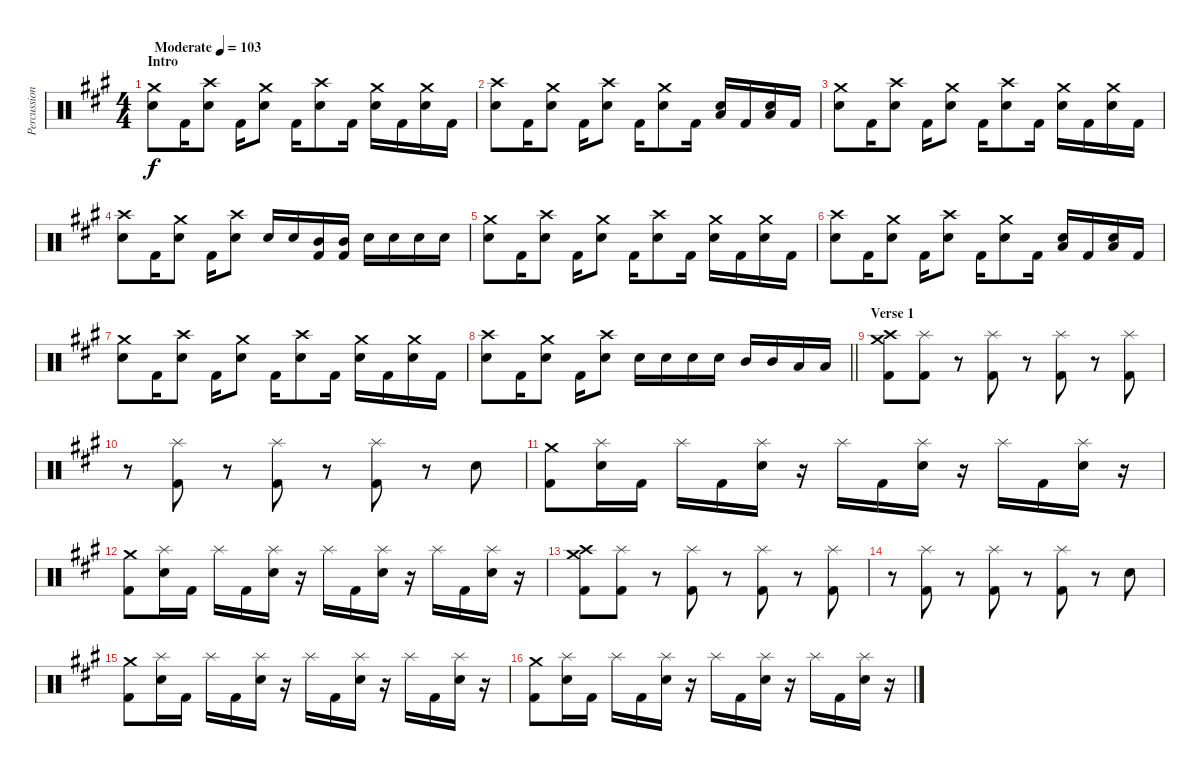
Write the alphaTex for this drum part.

\track ("Percussion" "Percussion") {instrument percussion}
\staff {score}
\articulation defaults
\ts (4 4)
\section ("" "Intro")
\tempo (103 "Moderate")
\clef neutral
\ks f#minor
("Crash medium (hit)" "Electric Snare (hit)").8{dy f} "Kick (hit) 2".16 ("Crash high (hit)" "Electric Snare (hit)").8 "Kick (hit) 2".16 ("Crash medium (hit)" "Electric Snare (hit)").8 "Kick (hit) 2".16 ("Crash high (hit)" "Electric Snare (hit)").8 "Kick (hit) 2".16 ("Crash medium (hit)" "Electric Snare (hit)").16 "Kick (hit) 2".16 ("Crash medium (hit)" "Electric Snare (hit)").16 "Kick (hit) 2".16 |
("Crash high (hit)" "Electric Snare (hit)").8 "Kick (hit) 2".16 ("Crash medium (hit)" "Electric Snare (hit)").8 "Kick (hit) 2".16 ("Crash high (hit)" "Electric Snare (hit)").8 "Kick (hit) 2".16 ("Crash medium (hit)" "Electric Snare (hit)").8 "Kick (hit) 2".16 ("Low Tom (hit)" "Electric Snare (hit)").16 "Kick (hit) 2".16 ("Low Tom (hit)" "Electric Snare (hit)").16 "Kick (hit) 2".16 |
("Crash medium (hit)" "Electric Snare (hit)").8 "Kick (hit) 2".16 ("Crash high (hit)" "Electric Snare (hit)").8 "Kick (hit) 2".16 ("Crash medium (hit)" "Electric Snare (hit)").8 "Kick (hit) 2".16 ("Crash high (hit)" "Electric Snare (hit)").8 "Kick (hit) 2".16 ("Crash medium (hit)" "Electric Snare (hit)").16 "Kick (hit) 2".16 ("Crash medium (hit)" "Electric Snare (hit)").16 "Kick (hit) 2".16 |
("Crash high (hit)" "Electric Snare (hit)").8 "Kick (hit) 2".16 ("Crash medium (hit)" "Electric Snare (hit)").8 "Kick (hit) 2".16 ("Crash high (hit)" "Electric Snare (hit)").8 "Electric Snare (hit)".16 "Electric Snare (hit)".16 ("Mid Tom (hit)" "Kick (hit) 2").16 ("Mid Tom (hit)" "Kick (hit) 2").16 "Electric Snare (hit)".16 "Electric Snare (hit)".16 "Electric Snare (hit)".16 "Electric Snare (hit)".16 |
("Crash medium (hit)" "Electric Snare (hit)").8 "Kick (hit) 2".16 ("Crash high (hit)" "Electric Snare (hit)").8 "Kick (hit) 2".16 ("Crash medium (hit)" "Electric Snare (hit)").8 "Kick (hit) 2".16 ("Crash high (hit)" "Electric Snare (hit)").8 "Kick (hit) 2".16 ("Crash medium (hit)" "Electric Snare (hit)").16 "Kick (hit) 2".16 ("Crash medium (hit)" "Electric Snare (hit)").16 "Kick (hit) 2".16 |
("Crash high (hit)" "Electric Snare (hit)").8 "Kick (hit) 2".16 ("Crash medium (hit)" "Electric Snare (hit)").8 "Kick (hit) 2".16 ("Crash high (hit)" "Electric Snare (hit)").8 "Kick (hit) 2".16 ("Crash medium (hit)" "Electric Snare (hit)").8 "Kick (hit) 2".16 ("Low Tom (hit)" "Electric Snare (hit)").16 "Kick (hit) 2".16 ("Low Tom (hit)" "Electric Snare (hit)").16 "Kick (hit) 2".16 |
("Crash medium (hit)" "Electric Snare (hit)").8 "Kick (hit) 2".16 ("Crash high (hit)" "Electric Snare (hit)").8 "Kick (hit) 2".16 ("Crash medium (hit)" "Electric Snare (hit)").8 "Kick (hit) 2".16 ("Crash high (hit)" "Electric Snare (hit)").8 "Kick (hit) 2".16 ("Crash medium (hit)" "Electric Snare (hit)").16 "Kick (hit) 2".16 ("Crash medium (hit)" "Electric Snare (hit)").16 "Kick (hit) 2".16 |
\barLineRight lightlight
("Crash high (hit)" "Electric Snare (hit)").8 "Kick (hit) 2".16 ("Crash medium (hit)" "Electric Snare (hit)").8 "Kick (hit) 2".16 ("Crash high (hit)" "Electric Snare (hit)").8 "Electric Snare (hit)".16 "Electric Snare (hit)".16 "Electric Snare (hit)".16 "Electric Snare (hit)".16 "Mid Tom (hit)".16 "Mid Tom (hit)".16 "Low Tom (hit)".16 "Low Tom (hit)".16 |
\section ("" "Verse 1")
("Crash high (hit)" "Crash medium (hit)" "Kick (hit) 2").8 ("Splash (hit)" "Kick (hit) 2").8 r.8 ("Splash (hit)" "Kick (hit) 2").8 r.8 ("Splash (hit)" "Kick (hit) 2").8 r.8 ("Splash (hit)" "Kick (hit) 2").8 |
r.8 ("Splash (hit)" "Kick (hit) 2").8 r.8 ("Splash (hit)" "Kick (hit) 2").8 r.8 ("Splash (hit)" "Kick (hit) 2").8 r.8 "Electric Snare (hit)".8 |
("Crash medium (hit)" "Kick (hit) 2").8 ("Splash (hit)" "Electric Snare (hit)").16 "Kick (hit) 2".16 "Splash (hit)".16 "Kick (hit) 2".16 ("Splash (hit)" "Electric Snare (hit)").16 r.16 "Splash (hit)".16 "Kick (hit) 2".16 ("Splash (hit)" "Electric Snare (hit)").16 r.16 "Splash (hit)".16 "Kick (hit) 2".16 ("Splash (hit)" "Electric Snare (hit)").16 r.16 |
("Crash medium (hit)" "Kick (hit) 2").8 ("Splash (hit)" "Electric Snare (hit)").16 "Kick (hit) 2".16 "Splash (hit)".16 "Kick (hit) 2".16 ("Splash (hit)" "Electric Snare (hit)").16 r.16 "Splash (hit)".16 "Kick (hit) 2".16 ("Splash (hit)" "Electric Snare (hit)").16 r.16 "Splash (hit)".16 "Kick (hit) 2".16 ("Splash (hit)" "Electric Snare (hit)").16 r.16 |
("Crash high (hit)" "Crash medium (hit)" "Kick (hit) 2").8 ("Splash (hit)" "Kick (hit) 2").8 r.8 ("Splash (hit)" "Kick (hit) 2").8 r.8 ("Splash (hit)" "Kick (hit) 2").8 r.8 ("Splash (hit)" "Kick (hit) 2").8 |
r.8 ("Splash (hit)" "Kick (hit) 2").8 r.8 ("Splash (hit)" "Kick (hit) 2").8 r.8 ("Splash (hit)" "Kick (hit) 2").8 r.8 "Electric Snare (hit)".8 |
("Crash medium (hit)" "Kick (hit) 2").8 ("Splash (hit)" "Electric Snare (hit)").16 "Kick (hit) 2".16 "Splash (hit)".16 "Kick (hit) 2".16 ("Splash (hit)" "Electric Snare (hit)").16 r.16 "Splash (hit)".16 "Kick (hit) 2".16 ("Splash (hit)" "Electric Snare (hit)").16 r.16 "Splash (hit)".16 "Kick (hit) 2".16 ("Splash (hit)" "Electric Snare (hit)").16 r.16 |
("Crash medium (hit)" "Kick (hit) 2").8 ("Splash (hit)" "Electric Snare (hit)").16 "Kick (hit) 2".16 "Splash (hit)".16 "Kick (hit) 2".16 ("Splash (hit)" "Electric Snare (hit)").16 r.16 "Splash (hit)".16 "Kick (hit) 2".16 ("Splash (hit)" "Electric Snare (hit)").16 r.16 "Splash (hit)".16 "Kick (hit) 2".16 ("Splash (hit)" "Electric Snare (hit)").16 r.16
